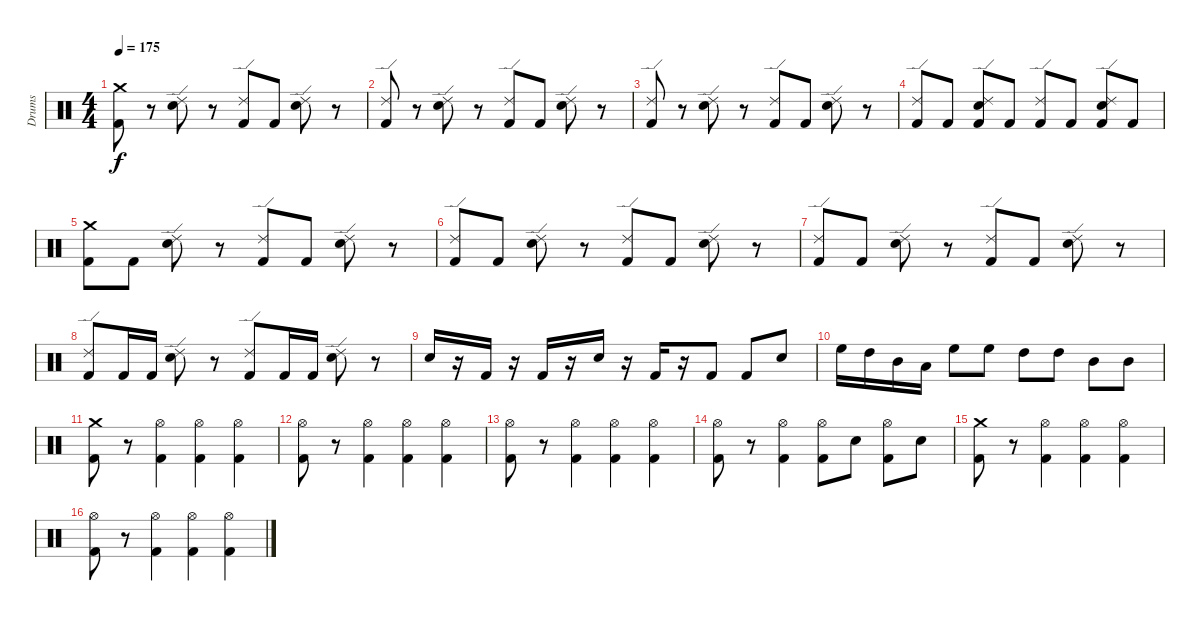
\track ("Drums" "Drums") {instrument percussion}
\staff {score}
\articulation defaults
\ts (4 4)
\tempo 175
\clef neutral
\ks c
("Crash medium (hit)" "Kick (hit) 2").8{dy f} r.8 ("Ride (edge) 2" "Electric Snare (hit)").8 r.8 ("Ride (edge) 2" "Kick (hit) 2").8 "Kick (hit) 2".8 ("Ride (edge) 2" "Electric Snare (hit)").8 r.8 |
("Ride (edge) 2" "Kick (hit) 2").8 r.8 ("Ride (edge) 2" "Electric Snare (hit)").8 r.8 ("Ride (edge) 2" "Kick (hit) 2").8 "Kick (hit) 2".8 ("Ride (edge) 2" "Electric Snare (hit)").8 r.8 |
("Ride (edge) 2" "Kick (hit) 2").8 r.8 ("Ride (edge) 2" "Electric Snare (hit)").8 r.8 ("Ride (edge) 2" "Kick (hit) 2").8 "Kick (hit) 2".8 ("Ride (edge) 2" "Electric Snare (hit)").8 r.8 |
("Ride (edge) 2" "Kick (hit) 2").8 "Kick (hit) 2".8 ("Kick (hit) 2" "Ride (edge) 2" "Electric Snare (hit)").8 "Kick (hit) 2".8 ("Kick (hit) 2" "Ride (edge) 2").8 "Kick (hit) 2".8 ("Kick (hit) 2" "Ride (edge) 2" "Electric Snare (hit)").8 "Kick (hit) 2".8 |
("Crash medium (hit)" "Kick (hit) 2").8 "Kick (hit) 2".8 ("Ride (edge) 2" "Electric Snare (hit)").8 r.8 ("Ride (edge) 2" "Kick (hit) 2").8 "Kick (hit) 2".8 ("Ride (edge) 2" "Electric Snare (hit)").8 r.8 |
("Ride (edge) 2" "Kick (hit) 2").8 "Kick (hit) 2".8 ("Ride (edge) 2" "Electric Snare (hit)").8 r.8 ("Ride (edge) 2" "Kick (hit) 2").8 "Kick (hit) 2".8 ("Ride (edge) 2" "Electric Snare (hit)").8 r.8 |
("Ride (edge) 2" "Kick (hit) 2").8 "Kick (hit) 2".8 ("Ride (edge) 2" "Electric Snare (hit)").8 r.8 ("Ride (edge) 2" "Kick (hit) 2").8 "Kick (hit) 2".8 ("Ride (edge) 2" "Electric Snare (hit)").8 r.8 |
("Ride (edge) 2" "Kick (hit) 2").8 "Kick (hit) 2".16 "Kick (hit) 2".16 ("Ride (edge) 2" "Electric Snare (hit)").8 r.8 ("Ride (edge) 2" "Kick (hit) 2").8 "Kick (hit) 2".16 "Kick (hit) 2".16 ("Ride (edge) 2" "Electric Snare (hit)").8 r.8 |
"Electric Snare (hit)".16 r.16 "Kick (hit) 2".16 r.16 "Kick (hit) 2".16 r.16 "Electric Snare (hit)".16 r.16 "Kick (hit) 2".16 r.16 "Kick (hit) 2".8 "Kick (hit) 2".8 "Electric Snare (hit)".8 |
"High Floor Tom (hit)".16 "High Tom (hit)".16 "Mid Tom (hit)".16 "Low Tom (hit)".16 "High Floor Tom (hit)".8 "High Floor Tom (hit)".8 "High Tom (hit)".8 "High Tom (hit)".8 "Mid Tom (hit)".8 "Mid Tom (hit)".8 |
("Kick (hit) 2" "Crash medium (hit)").8 r.8 ("Kick (hit) 2" "Hi-Hat (open)").4 ("Hi-Hat (open)" "Kick (hit) 2").4 ("Kick (hit) 2" "Hi-Hat (open)").4 |
("Hi-Hat (open)" "Kick (hit) 2").8 r.8 ("Kick (hit) 2" "Hi-Hat (open)").4 ("Hi-Hat (open)" "Kick (hit) 2").4 ("Kick (hit) 2" "Hi-Hat (open)").4 |
("Hi-Hat (open)" "Kick (hit) 2").8 r.8 ("Kick (hit) 2" "Hi-Hat (open)").4 ("Hi-Hat (open)" "Kick (hit) 2").4 ("Kick (hit) 2" "Hi-Hat (open)").4 |
("Hi-Hat (open)" "Kick (hit) 2").8 r.8 ("Kick (hit) 2" "Hi-Hat (open)").4 ("Hi-Hat (open)" "Kick (hit) 2").8 "Electric Snare (hit)".8 ("Kick (hit) 2" "Hi-Hat (open)").8 "Electric Snare (hit)".8 |
("Kick (hit) 2" "Crash medium (hit)").8 r.8 ("Kick (hit) 2" "Hi-Hat (open)").4 ("Hi-Hat (open)" "Kick (hit) 2").4 ("Kick (hit) 2" "Hi-Hat (open)").4 |
("Hi-Hat (open)" "Kick (hit) 2").8 r.8 ("Kick (hit) 2" "Hi-Hat (open)").4 ("Hi-Hat (open)" "Kick (hit) 2").4 ("Kick (hit) 2" "Hi-Hat (open)").4
